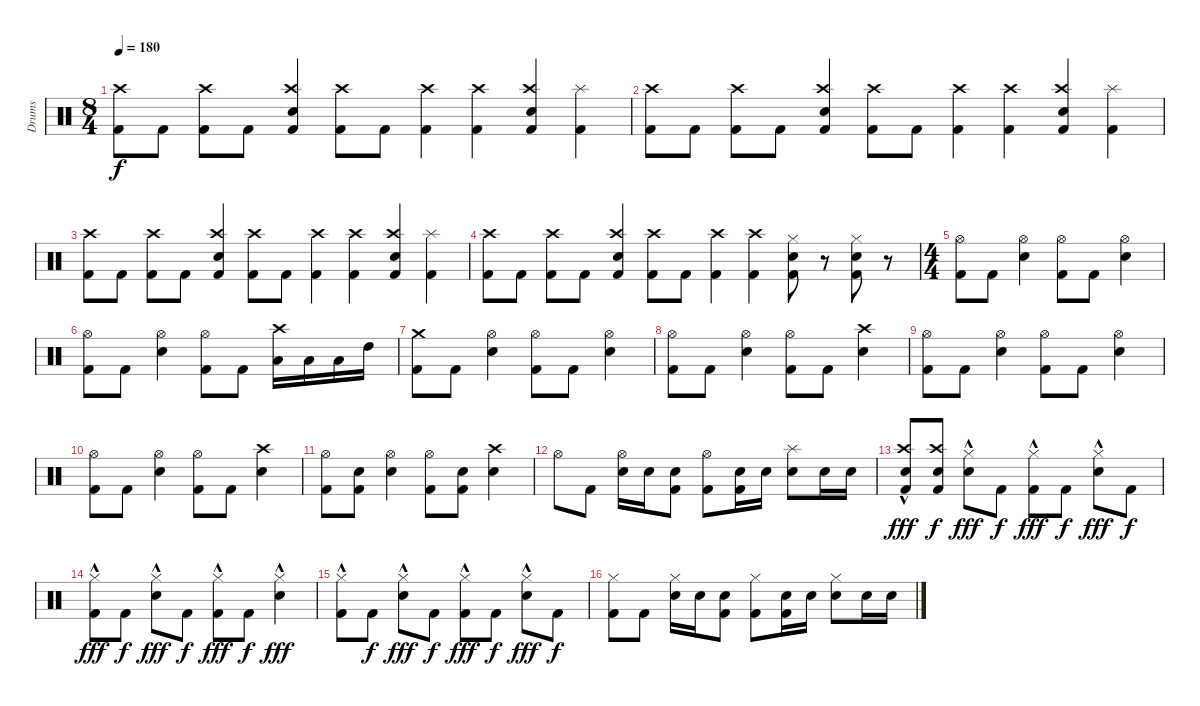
\track ("Drums" "Drums") {instrument percussion}
\staff {score}
\articulation defaults
\ts (8 4)
\tempo 180
\clef neutral
\ks c
("Kick (hit) 2" "Crash high (hit)").8{dy f} "Kick (hit) 2".8 ("Kick (hit) 2" "Crash high (hit)").8 "Kick (hit) 2".8 ("Kick (hit) 2" "Electric Snare (hit)" "Crash high (hit)").4 ("Kick (hit) 2" "Crash high (hit)").8 "Kick (hit) 2".8 ("Kick (hit) 2" "Crash high (hit)").4 ("Kick (hit) 2" "Crash high (hit)").4 ("Kick (hit) 2" "Electric Snare (hit)" "Crash high (hit)").4 ("Kick (hit) 2" "Splash (hit)").4 |
("Kick (hit) 2" "Crash high (hit)").8 "Kick (hit) 2".8 ("Kick (hit) 2" "Crash high (hit)").8 "Kick (hit) 2".8 ("Kick (hit) 2" "Electric Snare (hit)" "Crash high (hit)").4 ("Kick (hit) 2" "Crash high (hit)").8 "Kick (hit) 2".8 ("Kick (hit) 2" "Crash high (hit)").4 ("Kick (hit) 2" "Crash high (hit)").4 ("Kick (hit) 2" "Electric Snare (hit)" "Crash high (hit)").4 ("Kick (hit) 2" "Splash (hit)").4 |
("Kick (hit) 2" "Crash high (hit)").8 "Kick (hit) 2".8 ("Kick (hit) 2" "Crash high (hit)").8 "Kick (hit) 2".8 ("Kick (hit) 2" "Electric Snare (hit)" "Crash high (hit)").4 ("Kick (hit) 2" "Crash high (hit)").8 "Kick (hit) 2".8 ("Kick (hit) 2" "Crash high (hit)").4 ("Kick (hit) 2" "Crash high (hit)").4 ("Kick (hit) 2" "Electric Snare (hit)" "Crash high (hit)").4 ("Kick (hit) 2" "Splash (hit)").4 |
("Kick (hit) 2" "Crash high (hit)").8 "Kick (hit) 2".8 ("Kick (hit) 2" "Crash high (hit)").8 "Kick (hit) 2".8 ("Kick (hit) 2" "Electric Snare (hit)" "Crash high (hit)").4 ("Kick (hit) 2" "Crash high (hit)").8 "Kick (hit) 2".8 ("Kick (hit) 2" "Crash high (hit)").4 ("Kick (hit) 2" "Crash high (hit)").4 ("Kick (hit) 2" "Electric Snare (hit)" "Hi-Hat (closed)").8 r.8 ("Kick (hit) 2" "Electric Snare (hit)" "Hi-Hat (closed)").8 r.8 |
\ts (4 4)
("Kick (hit) 2" "Hi-Hat (open)").8 "Kick (hit) 2".8 ("Electric Snare (hit)" "Hi-Hat (open)").4 ("Kick (hit) 2" "Hi-Hat (open)").8 "Kick (hit) 2".8 ("Electric Snare (hit)" "Hi-Hat (open)").4 |
("Kick (hit) 2" "Hi-Hat (open)").8 "Kick (hit) 2".8 ("Electric Snare (hit)" "Hi-Hat (open)").4 ("Kick (hit) 2" "Hi-Hat (open)").8 "Kick (hit) 2".8 ("Low Floor Tom (hit)" "Crash high (hit)").16 "Low Floor Tom (hit)".16 "Low Tom (hit)".16 "High Tom (hit)".16 |
("Kick (hit) 2" "Crash medium (hit)").8 "Kick (hit) 2".8 ("Electric Snare (hit)" "Hi-Hat (open)").4 ("Kick (hit) 2" "Hi-Hat (open)").8 "Kick (hit) 2".8 ("Electric Snare (hit)" "Hi-Hat (open)").4 |
("Kick (hit) 2" "Hi-Hat (open)").8 "Kick (hit) 2".8 ("Electric Snare (hit)" "Hi-Hat (open)").4 ("Kick (hit) 2" "Hi-Hat (open)").8 "Kick (hit) 2".8 ("Electric Snare (hit)" "Crash high (hit)").4 |
("Kick (hit) 2" "Hi-Hat (open)").8 "Kick (hit) 2".8 ("Electric Snare (hit)" "Hi-Hat (open)").4 ("Kick (hit) 2" "Hi-Hat (open)").8 "Kick (hit) 2".8 ("Electric Snare (hit)" "Hi-Hat (open)").4 |
("Kick (hit) 2" "Hi-Hat (open)").8 "Kick (hit) 2".8 ("Electric Snare (hit)" "Hi-Hat (open)").4 ("Kick (hit) 2" "Hi-Hat (open)").8 "Kick (hit) 2".8 ("Electric Snare (hit)" "Crash high (hit)").4 |
("Kick (hit) 2" "Hi-Hat (open)").8 ("Kick (hit) 2" "Electric Snare (hit)").8 ("Electric Snare (hit)" "Hi-Hat (open)").4 ("Kick (hit) 2" "Hi-Hat (open)").8 ("Kick (hit) 2" "Electric Snare (hit)").8 ("Electric Snare (hit)" "Crash high (hit)").4 |
"Hi-Hat (open)".8 "Kick (hit) 2".8 ("Electric Snare (hit)" "Hi-Hat (open)").16 "Electric Snare (hit)".16 ("Kick (hit) 2" "Electric Snare (hit)").8 ("Kick (hit) 2" "Hi-Hat (open)").8 ("Kick (hit) 2" "Electric Snare (hit)").16 "Electric Snare (hit)".16 ("Electric Snare (hit)" "Splash (hit)").8 "Electric Snare (hit)".16 "Electric Snare (hit)".16 |
("Kick (hit) 2" "Electric Snare (hit)" "Crash high (hit)"{hac}).8{dy fff} ("Kick (hit) 2" "Electric Snare (hit)" "Crash high (hit)").8{dy f} ("Electric Snare (hit)" "Hi-Hat (closed)"{hac}).8{dy fff} "Kick (hit) 2".8{dy f} ("Kick (hit) 2" "Hi-Hat (closed)"{hac}).8{dy fff} "Kick (hit) 2".8{dy f} ("Electric Snare (hit)" "Hi-Hat (closed)"{hac}).8{dy fff} "Kick (hit) 2".8{dy f} |
("Kick (hit) 2" "Hi-Hat (closed)"{hac}).8{dy fff} "Kick (hit) 2".8{dy f} ("Electric Snare (hit)" "Hi-Hat (closed)"{hac}).8{dy fff} "Kick (hit) 2".8{dy f} ("Kick (hit) 2" "Hi-Hat (closed)"{hac}).8{dy fff} "Kick (hit) 2".8{dy f} ("Electric Snare (hit)" "Hi-Hat (closed)"{hac}).4{dy fff} |
("Kick (hit) 2" "Hi-Hat (closed)"{hac}).8 "Kick (hit) 2".8{dy f} ("Electric Snare (hit)" "Hi-Hat (closed)"{hac}).8{dy fff} "Kick (hit) 2".8{dy f} ("Kick (hit) 2" "Hi-Hat (closed)"{hac}).8{dy fff} "Kick (hit) 2".8{dy f} ("Electric Snare (hit)" "Hi-Hat (closed)"{hac}).8{dy fff} "Kick (hit) 2".8{dy f} |
("Kick (hit) 2" "Hi-Hat (closed)").8 "Kick (hit) 2".8 ("Electric Snare (hit)" "Hi-Hat (closed)").16 "Electric Snare (hit)".16 ("Kick (hit) 2" "Electric Snare (hit)").8 ("Kick (hit) 2" "Hi-Hat (closed)").8 ("Kick (hit) 2" "Electric Snare (hit)").16 "Electric Snare (hit)".16 ("Electric Snare (hit)" "Hi-Hat (closed)").8 "Electric Snare (hit)".16 "Electric Snare (hit)".16
